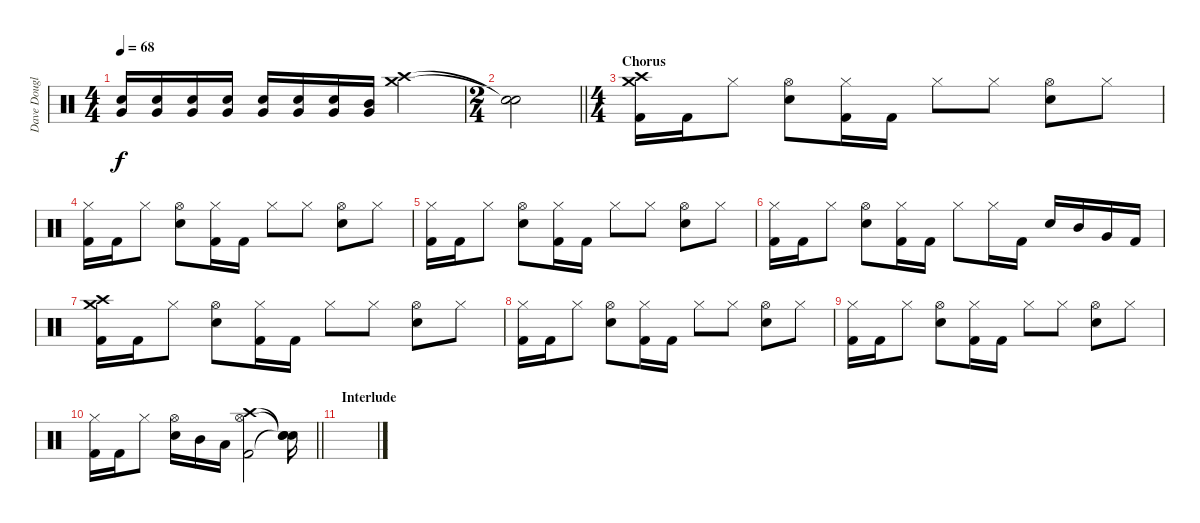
\track ("Dave Douglas - Drums" "Dave Dougl") {instrument percussion}
\staff {score}
\articulation defaults
\ts (4 4)
\tempo 68
\clef neutral
\ks c
("Snare (hit) 2" "Very Low Tom (hit)").16{dy f} ("Snare (hit) 2" "Very Low Tom (hit)").16 ("Snare (hit) 2" "Very Low Tom (hit)").16 ("Snare (hit) 2" "Very Low Tom (hit)").16 ("Snare (hit) 2" "Very Low Tom (hit)").16 ("Snare (hit) 2" "Very Low Tom (hit)").16 ("Snare (hit) 2" "Very Low Tom (hit)").16 ("Mid Tom (hit)" "Very Low Tom (hit)").16 ("Crash high (hit)" "Crash medium (hit)").2 |
\ts (2 4)
\barLineRight lightlight
("Snare (hit)"{t} "Snare (hit)"{t}).2 |
\ts (4 4)
\section ("" "Chorus")
("Crash high (hit)" "Crash medium (hit)" "Kick (hit) 2").16 "Kick (hit) 2".16 "Hi-Hat (closed)".8 ("Hi-Hat (open)" "Snare (hit) 2").8 ("Hi-Hat (closed)" "Kick (hit) 2").16 "Kick (hit) 2".16 "Hi-Hat (closed)".8 "Hi-Hat (closed)".8 ("Hi-Hat (open)" "Snare (hit) 2").8 "Hi-Hat (closed)".8 |
("Hi-Hat (closed)" "Kick (hit) 2").16 "Kick (hit) 2".16 "Hi-Hat (closed)".8 ("Hi-Hat (open)" "Snare (hit) 2").8 ("Hi-Hat (closed)" "Kick (hit) 2").16 "Kick (hit) 2".16 "Hi-Hat (closed)".8 "Hi-Hat (closed)".8 ("Hi-Hat (open)" "Snare (hit) 2").8 "Hi-Hat (closed)".8 |
("Hi-Hat (closed)" "Kick (hit) 2").16 "Kick (hit) 2".16 "Hi-Hat (closed)".8 ("Hi-Hat (open)" "Snare (hit) 2").8 ("Hi-Hat (closed)" "Kick (hit) 2").16 "Kick (hit) 2".16 "Hi-Hat (closed)".8 "Hi-Hat (closed)".8 ("Hi-Hat (open)" "Snare (hit) 2").8 "Hi-Hat (closed)".8 |
("Hi-Hat (closed)" "Kick (hit) 2").16 "Kick (hit) 2".16 "Hi-Hat (closed)".8 ("Hi-Hat (open)" "Snare (hit) 2").8 ("Hi-Hat (closed)" "Kick (hit) 2").16 "Kick (hit) 2".16 "Hi-Hat (closed)".8 "Hi-Hat (closed)".16 "Kick (hit) 2".16 "Snare (hit) 2".16 "Mid Tom (hit)".16 "Very Low Tom (hit)".16 "Kick (hit) 2".16 |
("Crash high (hit)" "Crash medium (hit)" "Kick (hit) 2").16 "Kick (hit) 2".16 "Hi-Hat (closed)".8 ("Hi-Hat (open)" "Snare (hit) 2").8 ("Hi-Hat (closed)" "Kick (hit) 2").16 "Kick (hit) 2".16 "Hi-Hat (closed)".8 "Hi-Hat (closed)".8 ("Hi-Hat (open)" "Snare (hit) 2").8 "Hi-Hat (closed)".8 |
("Hi-Hat (closed)" "Kick (hit) 2").16 "Kick (hit) 2".16 "Hi-Hat (closed)".8 ("Hi-Hat (open)" "Snare (hit) 2").8 ("Hi-Hat (closed)" "Kick (hit) 2").16 "Kick (hit) 2".16 "Hi-Hat (closed)".8 "Hi-Hat (closed)".8 ("Hi-Hat (open)" "Snare (hit) 2").8 "Hi-Hat (closed)".8 |
("Hi-Hat (closed)" "Kick (hit) 2").16 "Kick (hit) 2".16 "Hi-Hat (closed)".8 ("Hi-Hat (open)" "Snare (hit) 2").8 ("Hi-Hat (closed)" "Kick (hit) 2").16 "Kick (hit) 2".16 "Hi-Hat (closed)".8 "Hi-Hat (closed)".8 ("Hi-Hat (open)" "Snare (hit) 2").8 "Hi-Hat (closed)".8 |
\barLineRight lightlight
("Hi-Hat (closed)" "Kick (hit) 2").16 "Kick (hit) 2".16 "Hi-Hat (closed)".8 ("Hi-Hat (open)" "Snare (hit) 2").16 "Mid Tom (hit)".16 "Low Tom (hit)".16 ("Hi-Hat (open)" "Crash high (hit)" "Kick (hit) 2").2 ("Snare (hit)"{t} "Snare (hit)"{t} "Snare (hit)"{t}).16 |
\section ("" "Interlude")
